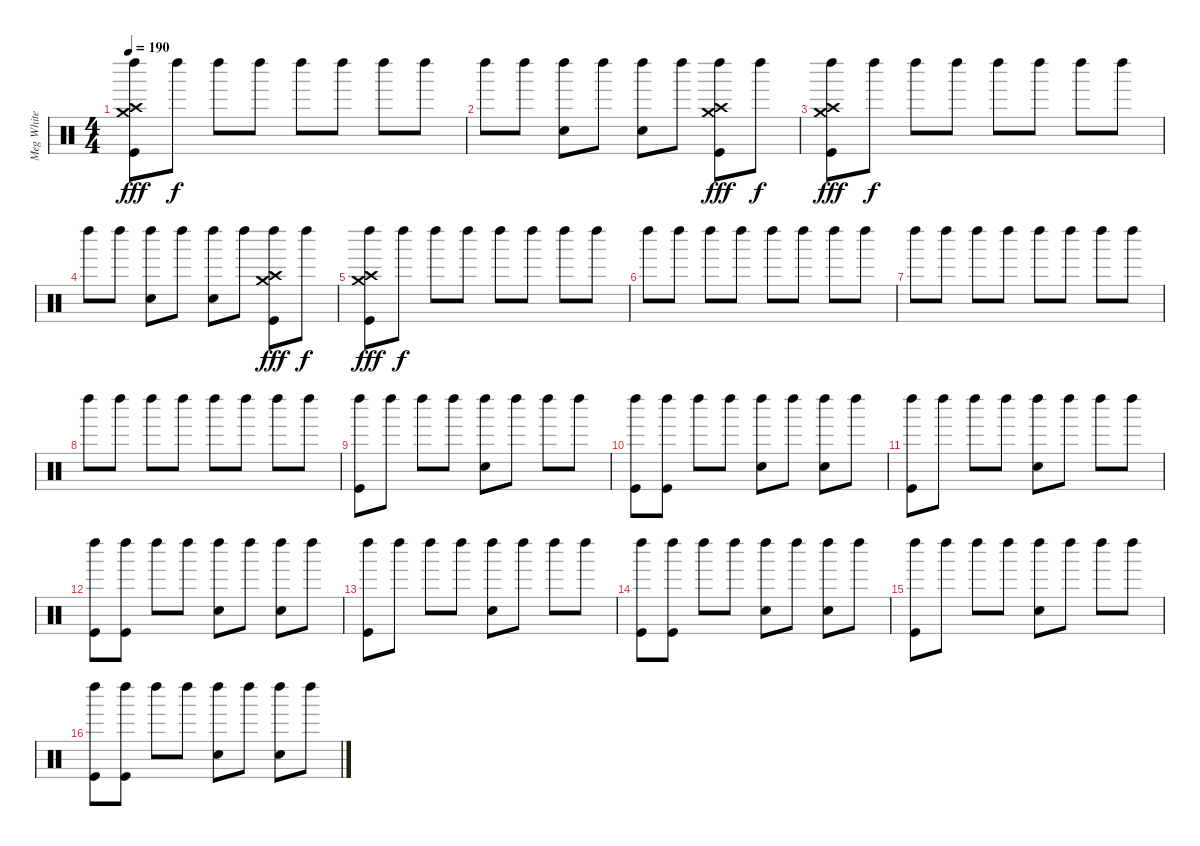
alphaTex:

\track ("Meg White" "Meg White") {instrument percussion}
\staff {score}
\articulation defaults
\ts (4 4)
\tempo 190
\clef neutral
\ks c
("Crash high (hit)" "Crash medium (hit)" "Kick (hit)" "Left Maraca (hit)").8{dy fff} "Left Maraca (hit)".8{dy f} "Left Maraca (hit)".8 "Left Maraca (hit)".8 "Left Maraca (hit)".8 "Left Maraca (hit)".8 "Left Maraca (hit)".8 "Left Maraca (hit)".8 |
"Left Maraca (hit)".8 "Left Maraca (hit)".8 ("Snare (hit) 2" "Left Maraca (hit)").8 "Left Maraca (hit)".8 ("Snare (hit) 2" "Left Maraca (hit)").8 "Left Maraca (hit)".8 ("Crash high (hit)" "Crash medium (hit)" "Kick (hit)" "Left Maraca (hit)").8{dy fff} "Left Maraca (hit)".8{dy f} |
("Crash high (hit)" "Crash medium (hit)" "Kick (hit)" "Left Maraca (hit)").8{dy fff} "Left Maraca (hit)".8{dy f} "Left Maraca (hit)".8 "Left Maraca (hit)".8 "Left Maraca (hit)".8 "Left Maraca (hit)".8 "Left Maraca (hit)".8 "Left Maraca (hit)".8 |
"Left Maraca (hit)".8 "Left Maraca (hit)".8 ("Snare (hit) 2" "Left Maraca (hit)").8 "Left Maraca (hit)".8 ("Snare (hit) 2" "Left Maraca (hit)").8 "Left Maraca (hit)".8 ("Crash high (hit)" "Crash medium (hit)" "Kick (hit)" "Left Maraca (hit)").8{dy fff} "Left Maraca (hit)".8{dy f} |
("Crash high (hit)" "Crash medium (hit)" "Kick (hit)" "Left Maraca (hit)").8{dy fff} "Left Maraca (hit)".8{dy f} "Left Maraca (hit)".8 "Left Maraca (hit)".8 "Left Maraca (hit)".8 "Left Maraca (hit)".8 "Left Maraca (hit)".8 "Left Maraca (hit)".8 |
"Left Maraca (hit)".8 "Left Maraca (hit)".8 "Left Maraca (hit)".8 "Left Maraca (hit)".8 "Left Maraca (hit)".8 "Left Maraca (hit)".8 "Left Maraca (hit)".8 "Left Maraca (hit)".8 |
"Left Maraca (hit)".8 "Left Maraca (hit)".8 "Left Maraca (hit)".8 "Left Maraca (hit)".8 "Left Maraca (hit)".8 "Left Maraca (hit)".8 "Left Maraca (hit)".8 "Left Maraca (hit)".8 |
"Left Maraca (hit)".8 "Left Maraca (hit)".8 "Left Maraca (hit)".8 "Left Maraca (hit)".8 "Left Maraca (hit)".8 "Left Maraca (hit)".8 "Left Maraca (hit)".8 "Left Maraca (hit)".8 |
("Kick (hit)" "Left Maraca (hit)").8 "Left Maraca (hit)".8 "Left Maraca (hit)".8 "Left Maraca (hit)".8 ("Snare (hit) 2" "Left Maraca (hit)").8 "Left Maraca (hit)".8 "Left Maraca (hit)".8 "Left Maraca (hit)".8 |
("Kick (hit)" "Left Maraca (hit)").8 ("Kick (hit)" "Left Maraca (hit)").8 "Left Maraca (hit)".8 "Left Maraca (hit)".8 ("Snare (hit) 2" "Left Maraca (hit)").8 "Left Maraca (hit)".8 ("Snare (hit) 2" "Left Maraca (hit)").8 "Left Maraca (hit)".8 |
("Kick (hit)" "Left Maraca (hit)").8 "Left Maraca (hit)".8 "Left Maraca (hit)".8 "Left Maraca (hit)".8 ("Snare (hit) 2" "Left Maraca (hit)").8 "Left Maraca (hit)".8 "Left Maraca (hit)".8 "Left Maraca (hit)".8 |
("Kick (hit)" "Left Maraca (hit)").8 ("Kick (hit)" "Left Maraca (hit)").8 "Left Maraca (hit)".8 "Left Maraca (hit)".8 ("Snare (hit) 2" "Left Maraca (hit)").8 "Left Maraca (hit)".8 ("Snare (hit) 2" "Left Maraca (hit)").8 "Left Maraca (hit)".8 |
("Kick (hit)" "Left Maraca (hit)").8 "Left Maraca (hit)".8 "Left Maraca (hit)".8 "Left Maraca (hit)".8 ("Snare (hit) 2" "Left Maraca (hit)").8 "Left Maraca (hit)".8 "Left Maraca (hit)".8 "Left Maraca (hit)".8 |
("Kick (hit)" "Left Maraca (hit)").8 ("Kick (hit)" "Left Maraca (hit)").8 "Left Maraca (hit)".8 "Left Maraca (hit)".8 ("Snare (hit) 2" "Left Maraca (hit)").8 "Left Maraca (hit)".8 ("Snare (hit) 2" "Left Maraca (hit)").8 "Left Maraca (hit)".8 |
("Kick (hit)" "Left Maraca (hit)").8 "Left Maraca (hit)".8 "Left Maraca (hit)".8 "Left Maraca (hit)".8 ("Snare (hit) 2" "Left Maraca (hit)").8 "Left Maraca (hit)".8 "Left Maraca (hit)".8 "Left Maraca (hit)".8 |
("Kick (hit)" "Left Maraca (hit)").8 ("Kick (hit)" "Left Maraca (hit)").8 "Left Maraca (hit)".8 "Left Maraca (hit)".8 ("Snare (hit) 2" "Left Maraca (hit)").8 "Left Maraca (hit)".8 ("Snare (hit) 2" "Left Maraca (hit)").8 "Left Maraca (hit)".8
